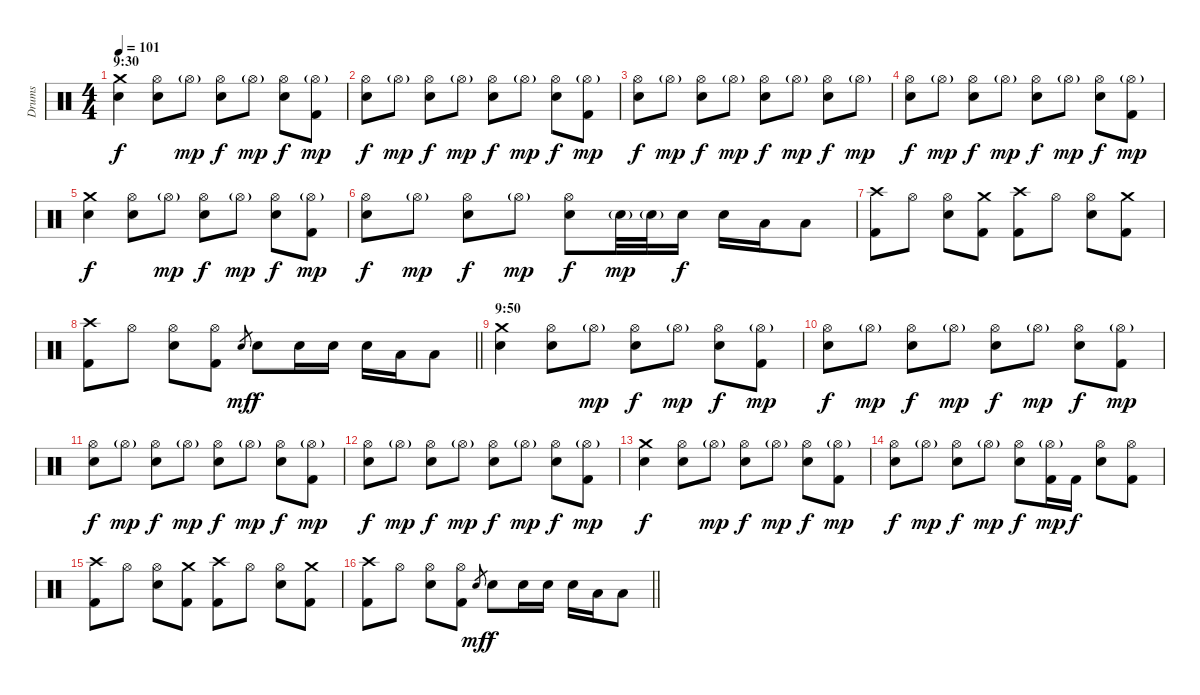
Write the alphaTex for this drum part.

\track ("Drums" "Drums") {instrument percussion}
\staff {score}
\articulation defaults
\ts (4 4)
\section ("" "9:30")
\tempo 101
\clef neutral
\ks c
("Crash medium (hit)" "Snare (hit) 2").4{dy f} ("Hi-Hat (open)" "Snare (hit) 2").8 "Hi-Hat (open)"{g}.8{dy mp} ("Hi-Hat (open)" "Snare (hit) 2").8{dy f} "Hi-Hat (open)"{g}.8{dy mp} ("Hi-Hat (open)" "Snare (hit) 2").8{dy f} ("Hi-Hat (open)"{g} "Kick (hit) 2").8{dy mp} |
("Hi-Hat (open)" "Snare (hit) 2").8{dy f} "Hi-Hat (open)"{g}.8{dy mp} ("Hi-Hat (open)" "Snare (hit) 2").8{dy f} "Hi-Hat (open)"{g}.8{dy mp} ("Hi-Hat (open)" "Snare (hit) 2").8{dy f} "Hi-Hat (open)"{g}.8{dy mp} ("Hi-Hat (open)" "Snare (hit) 2").8{dy f} ("Hi-Hat (open)"{g} "Kick (hit) 2").8{dy mp} |
("Hi-Hat (open)" "Snare (hit) 2").8{dy f} "Hi-Hat (open)"{g}.8{dy mp} ("Hi-Hat (open)" "Snare (hit) 2").8{dy f} "Hi-Hat (open)"{g}.8{dy mp} ("Hi-Hat (open)" "Snare (hit) 2").8{dy f} "Hi-Hat (open)"{g}.8{dy mp} ("Hi-Hat (open)" "Snare (hit) 2").8{dy f} "Hi-Hat (open)"{g}.8{dy mp} |
("Hi-Hat (open)" "Snare (hit) 2").8{dy f} "Hi-Hat (open)"{g}.8{dy mp} ("Hi-Hat (open)" "Snare (hit) 2").8{dy f} "Hi-Hat (open)"{g}.8{dy mp} ("Hi-Hat (open)" "Snare (hit) 2").8{dy f} "Hi-Hat (open)"{g}.8{dy mp} ("Hi-Hat (open)" "Snare (hit) 2").8{dy f} ("Hi-Hat (open)"{g} "Kick (hit) 2").8{dy mp} |
("Crash medium (hit)" "Snare (hit) 2").4{dy f} ("Hi-Hat (open)" "Snare (hit) 2").8 "Hi-Hat (open)"{g}.8{dy mp} ("Hi-Hat (open)" "Snare (hit) 2").8{dy f} "Hi-Hat (open)"{g}.8{dy mp} ("Hi-Hat (open)" "Snare (hit) 2").8{dy f} ("Hi-Hat (open)"{g} "Kick (hit) 2").8{dy mp} |
("Hi-Hat (open)" "Snare (hit) 2").8{dy f} "Hi-Hat (open)"{g}.8{dy mp} ("Hi-Hat (open)" "Snare (hit) 2").8{dy f} "Hi-Hat (open)"{g}.8{dy mp} ("Hi-Hat (open)" "Snare (hit) 2").8{dy f} "Snare (hit) 2"{g}.32{dy mp} "Snare (hit) 2"{g}.32 "Snare (hit) 2".16{dy f} "Snare (hit) 2".16 "Low Tom (hit)".16 "Low Tom (hit)".8 |
("Crash high (hit)" "Kick (hit) 2").8 "Hi-Hat (open)".8 ("Hi-Hat (open)" "Snare (hit) 2").8 ("Crash medium (hit)" "Kick (hit) 2").8 ("Crash high (hit)" "Kick (hit) 2").8 "Hi-Hat (open)".8 ("Hi-Hat (open)" "Snare (hit) 2").8 ("Crash medium (hit)" "Kick (hit) 2").8 |
\barLineRight lightlight
("Crash high (hit)" "Kick (hit) 2").8 "Hi-Hat (open)".8 ("Hi-Hat (open)" "Snare (hit) 2").8 ("Hi-Hat (open)" "Kick (hit) 2").8 "Snare (hit) 2".8{gr dy mf} "Snare (hit) 2".8{dy f} "Snare (hit) 2".16 "Snare (hit) 2".16 "Snare (hit) 2".16 "Low Tom (hit)".16 "Low Tom (hit)".8 |
\section ("" "9:50")
("Crash medium (hit)" "Snare (hit) 2").4 ("Hi-Hat (open)" "Snare (hit) 2").8 "Hi-Hat (open)"{g}.8{dy mp} ("Hi-Hat (open)" "Snare (hit) 2").8{dy f} "Hi-Hat (open)"{g}.8{dy mp} ("Hi-Hat (open)" "Snare (hit) 2").8{dy f} ("Hi-Hat (open)"{g} "Kick (hit) 2").8{dy mp} |
("Hi-Hat (open)" "Snare (hit) 2").8{dy f} "Hi-Hat (open)"{g}.8{dy mp} ("Hi-Hat (open)" "Snare (hit) 2").8{dy f} "Hi-Hat (open)"{g}.8{dy mp} ("Hi-Hat (open)" "Snare (hit) 2").8{dy f} "Hi-Hat (open)"{g}.8{dy mp} ("Hi-Hat (open)" "Snare (hit) 2").8{dy f} ("Hi-Hat (open)"{g} "Kick (hit) 2").8{dy mp} |
("Hi-Hat (open)" "Snare (hit) 2").8{dy f} "Hi-Hat (open)"{g}.8{dy mp} ("Hi-Hat (open)" "Snare (hit) 2").8{dy f} "Hi-Hat (open)"{g}.8{dy mp} ("Hi-Hat (open)" "Snare (hit) 2").8{dy f} "Hi-Hat (open)"{g}.8{dy mp} ("Hi-Hat (open)" "Snare (hit) 2").8{dy f} ("Hi-Hat (open)"{g} "Kick (hit) 2").8{dy mp} |
("Hi-Hat (open)" "Snare (hit) 2").8{dy f} "Hi-Hat (open)"{g}.8{dy mp} ("Hi-Hat (open)" "Snare (hit) 2").8{dy f} "Hi-Hat (open)"{g}.8{dy mp} ("Hi-Hat (open)" "Snare (hit) 2").8{dy f} "Hi-Hat (open)"{g}.8{dy mp} ("Hi-Hat (open)" "Snare (hit) 2").8{dy f} ("Hi-Hat (open)"{g} "Kick (hit) 2").8{dy mp} |
("Crash medium (hit)" "Snare (hit) 2").4{dy f} ("Hi-Hat (open)" "Snare (hit) 2").8 "Hi-Hat (open)"{g}.8{dy mp} ("Hi-Hat (open)" "Snare (hit) 2").8{dy f} "Hi-Hat (open)"{g}.8{dy mp} ("Hi-Hat (open)" "Snare (hit) 2").8{dy f} ("Hi-Hat (open)"{g} "Kick (hit) 2").8{dy mp} |
("Hi-Hat (open)" "Snare (hit) 2").8{dy f} "Hi-Hat (open)"{g}.8{dy mp} ("Hi-Hat (open)" "Snare (hit) 2").8{dy f} "Hi-Hat (open)"{g}.8{dy mp} ("Hi-Hat (open)" "Snare (hit) 2").8{dy f} ("Hi-Hat (open)"{g} "Kick (hit) 2").16{dy mp} "Kick (hit) 2".16{dy f} ("Hi-Hat (open)" "Snare (hit) 2").8 ("Hi-Hat (open)" "Kick (hit) 2").8 |
("Crash high (hit)" "Kick (hit) 2").8 "Hi-Hat (open)".8 ("Hi-Hat (open)" "Snare (hit) 2").8 ("Crash medium (hit)" "Kick (hit) 2").8 ("Crash high (hit)" "Kick (hit) 2").8 "Hi-Hat (open)".8 ("Hi-Hat (open)" "Snare (hit) 2").8 ("Crash medium (hit)" "Kick (hit) 2").8 |
\barLineRight lightlight
("Crash high (hit)" "Kick (hit) 2").8 "Hi-Hat (open)".8 ("Hi-Hat (open)" "Snare (hit) 2").8 ("Hi-Hat (open)" "Kick (hit) 2").8 "Snare (hit) 2".8{gr dy mf} "Snare (hit) 2".8{dy f} "Snare (hit) 2".16 "Snare (hit) 2".16 "Snare (hit) 2".16 "Low Tom (hit)".16 "Low Tom (hit)".8
